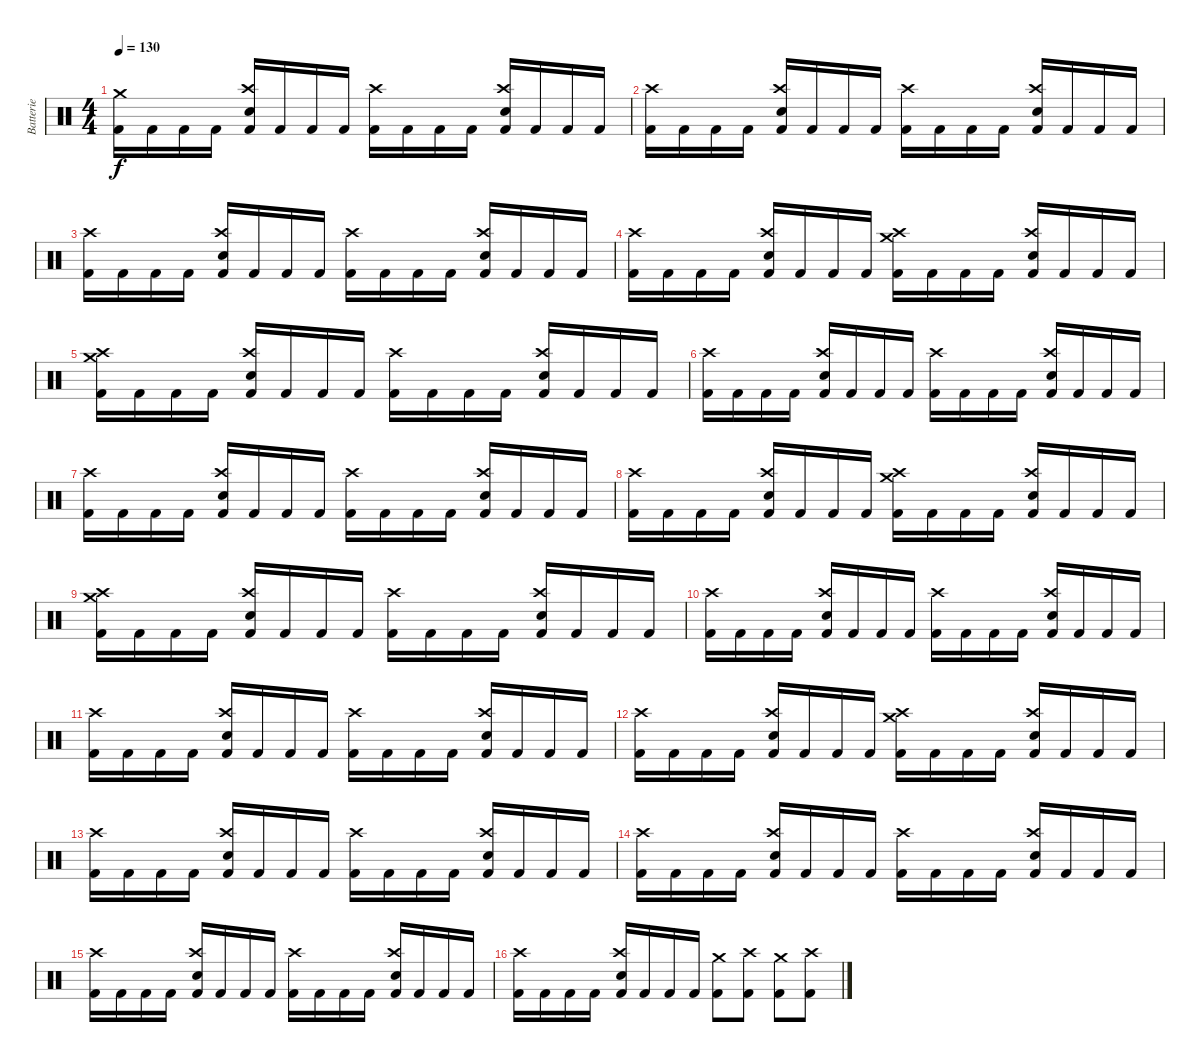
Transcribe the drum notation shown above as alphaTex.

\track ("Batterie" "Batterie") {instrument percussion}
\staff {score}
\articulation defaults
\ts (4 4)
\tempo 130
\clef neutral
\ks c
("Crash medium (hit)" "Kick (hit) 2").16{dy f} "Kick (hit) 2".16 "Kick (hit) 2".16 "Kick (hit) 2".16 ("Crash high (hit)" "Electric Snare (hit)" "Kick (hit) 2").16 "Kick (hit) 2".16 "Kick (hit) 2".16 "Kick (hit) 2".16 ("Crash high (hit)" "Kick (hit) 2").16 "Kick (hit) 2".16 "Kick (hit) 2".16 "Kick (hit) 2".16 ("Crash high (hit)" "Electric Snare (hit)" "Kick (hit) 2").16 "Kick (hit) 2".16 "Kick (hit) 2".16 "Kick (hit) 2".16 |
("Crash high (hit)" "Kick (hit) 2").16 "Kick (hit) 2".16 "Kick (hit) 2".16 "Kick (hit) 2".16 ("Crash high (hit)" "Electric Snare (hit)" "Kick (hit) 2").16 "Kick (hit) 2".16 "Kick (hit) 2".16 "Kick (hit) 2".16 ("Crash high (hit)" "Kick (hit) 2").16 "Kick (hit) 2".16 "Kick (hit) 2".16 "Kick (hit) 2".16 ("Crash high (hit)" "Electric Snare (hit)" "Kick (hit) 2").16 "Kick (hit) 2".16 "Kick (hit) 2".16 "Kick (hit) 2".16 |
("Crash high (hit)" "Kick (hit) 2").16 "Kick (hit) 2".16 "Kick (hit) 2".16 "Kick (hit) 2".16 ("Crash high (hit)" "Electric Snare (hit)" "Kick (hit) 2").16 "Kick (hit) 2".16 "Kick (hit) 2".16 "Kick (hit) 2".16 ("Crash high (hit)" "Kick (hit) 2").16 "Kick (hit) 2".16 "Kick (hit) 2".16 "Kick (hit) 2".16 ("Crash high (hit)" "Electric Snare (hit)" "Kick (hit) 2").16 "Kick (hit) 2".16 "Kick (hit) 2".16 "Kick (hit) 2".16 |
("Crash high (hit)" "Kick (hit) 2").16 "Kick (hit) 2".16 "Kick (hit) 2".16 "Kick (hit) 2".16 ("Crash high (hit)" "Electric Snare (hit)" "Kick (hit) 2").16 "Kick (hit) 2".16 "Kick (hit) 2".16 "Kick (hit) 2".16 ("Crash medium (hit)" "Crash high (hit)" "Kick (hit) 2").16 "Kick (hit) 2".16 "Kick (hit) 2".16 "Kick (hit) 2".16 ("Crash high (hit)" "Electric Snare (hit)" "Kick (hit) 2").16 "Kick (hit) 2".16 "Kick (hit) 2".16 "Kick (hit) 2".16 |
("Crash medium (hit)" "Crash high (hit)" "Kick (hit) 2").16 "Kick (hit) 2".16 "Kick (hit) 2".16 "Kick (hit) 2".16 ("Crash high (hit)" "Electric Snare (hit)" "Kick (hit) 2").16 "Kick (hit) 2".16 "Kick (hit) 2".16 "Kick (hit) 2".16 ("Crash high (hit)" "Kick (hit) 2").16 "Kick (hit) 2".16 "Kick (hit) 2".16 "Kick (hit) 2".16 ("Crash high (hit)" "Electric Snare (hit)" "Kick (hit) 2").16 "Kick (hit) 2".16 "Kick (hit) 2".16 "Kick (hit) 2".16 |
("Crash high (hit)" "Kick (hit) 2").16 "Kick (hit) 2".16 "Kick (hit) 2".16 "Kick (hit) 2".16 ("Crash high (hit)" "Electric Snare (hit)" "Kick (hit) 2").16 "Kick (hit) 2".16 "Kick (hit) 2".16 "Kick (hit) 2".16 ("Crash high (hit)" "Kick (hit) 2").16 "Kick (hit) 2".16 "Kick (hit) 2".16 "Kick (hit) 2".16 ("Crash high (hit)" "Electric Snare (hit)" "Kick (hit) 2").16 "Kick (hit) 2".16 "Kick (hit) 2".16 "Kick (hit) 2".16 |
("Crash high (hit)" "Kick (hit) 2").16 "Kick (hit) 2".16 "Kick (hit) 2".16 "Kick (hit) 2".16 ("Crash high (hit)" "Electric Snare (hit)" "Kick (hit) 2").16 "Kick (hit) 2".16 "Kick (hit) 2".16 "Kick (hit) 2".16 ("Crash high (hit)" "Kick (hit) 2").16 "Kick (hit) 2".16 "Kick (hit) 2".16 "Kick (hit) 2".16 ("Crash high (hit)" "Electric Snare (hit)" "Kick (hit) 2").16 "Kick (hit) 2".16 "Kick (hit) 2".16 "Kick (hit) 2".16 |
("Crash high (hit)" "Kick (hit) 2").16 "Kick (hit) 2".16 "Kick (hit) 2".16 "Kick (hit) 2".16 ("Crash high (hit)" "Electric Snare (hit)" "Kick (hit) 2").16 "Kick (hit) 2".16 "Kick (hit) 2".16 "Kick (hit) 2".16 ("Crash medium (hit)" "Crash high (hit)" "Kick (hit) 2").16 "Kick (hit) 2".16 "Kick (hit) 2".16 "Kick (hit) 2".16 ("Crash high (hit)" "Electric Snare (hit)" "Kick (hit) 2").16 "Kick (hit) 2".16 "Kick (hit) 2".16 "Kick (hit) 2".16 |
("Crash medium (hit)" "Crash high (hit)" "Kick (hit) 2").16 "Kick (hit) 2".16 "Kick (hit) 2".16 "Kick (hit) 2".16 ("Crash high (hit)" "Electric Snare (hit)" "Kick (hit) 2").16 "Kick (hit) 2".16 "Kick (hit) 2".16 "Kick (hit) 2".16 ("Crash high (hit)" "Kick (hit) 2").16 "Kick (hit) 2".16 "Kick (hit) 2".16 "Kick (hit) 2".16 ("Crash high (hit)" "Electric Snare (hit)" "Kick (hit) 2").16 "Kick (hit) 2".16 "Kick (hit) 2".16 "Kick (hit) 2".16 |
("Crash high (hit)" "Kick (hit) 2").16 "Kick (hit) 2".16 "Kick (hit) 2".16 "Kick (hit) 2".16 ("Crash high (hit)" "Electric Snare (hit)" "Kick (hit) 2").16 "Kick (hit) 2".16 "Kick (hit) 2".16 "Kick (hit) 2".16 ("Crash high (hit)" "Kick (hit) 2").16 "Kick (hit) 2".16 "Kick (hit) 2".16 "Kick (hit) 2".16 ("Crash high (hit)" "Electric Snare (hit)" "Kick (hit) 2").16 "Kick (hit) 2".16 "Kick (hit) 2".16 "Kick (hit) 2".16 |
("Crash high (hit)" "Kick (hit) 2").16 "Kick (hit) 2".16 "Kick (hit) 2".16 "Kick (hit) 2".16 ("Crash high (hit)" "Electric Snare (hit)" "Kick (hit) 2").16 "Kick (hit) 2".16 "Kick (hit) 2".16 "Kick (hit) 2".16 ("Crash high (hit)" "Kick (hit) 2").16 "Kick (hit) 2".16 "Kick (hit) 2".16 "Kick (hit) 2".16 ("Crash high (hit)" "Electric Snare (hit)" "Kick (hit) 2").16 "Kick (hit) 2".16 "Kick (hit) 2".16 "Kick (hit) 2".16 |
("Crash high (hit)" "Kick (hit) 2").16 "Kick (hit) 2".16 "Kick (hit) 2".16 "Kick (hit) 2".16 ("Crash high (hit)" "Electric Snare (hit)" "Kick (hit) 2").16 "Kick (hit) 2".16 "Kick (hit) 2".16 "Kick (hit) 2".16 ("Crash medium (hit)" "Crash high (hit)" "Kick (hit) 2").16 "Kick (hit) 2".16 "Kick (hit) 2".16 "Kick (hit) 2".16 ("Crash high (hit)" "Electric Snare (hit)" "Kick (hit) 2").16 "Kick (hit) 2".16 "Kick (hit) 2".16 "Kick (hit) 2".16 |
("Crash high (hit)" "Kick (hit) 2").16 "Kick (hit) 2".16 "Kick (hit) 2".16 "Kick (hit) 2".16 ("Crash high (hit)" "Electric Snare (hit)" "Kick (hit) 2").16 "Kick (hit) 2".16 "Kick (hit) 2".16 "Kick (hit) 2".16 ("Crash high (hit)" "Kick (hit) 2").16 "Kick (hit) 2".16 "Kick (hit) 2".16 "Kick (hit) 2".16 ("Crash high (hit)" "Electric Snare (hit)" "Kick (hit) 2").16 "Kick (hit) 2".16 "Kick (hit) 2".16 "Kick (hit) 2".16 |
("Crash high (hit)" "Kick (hit) 2").16 "Kick (hit) 2".16 "Kick (hit) 2".16 "Kick (hit) 2".16 ("Crash high (hit)" "Electric Snare (hit)" "Kick (hit) 2").16 "Kick (hit) 2".16 "Kick (hit) 2".16 "Kick (hit) 2".16 ("Crash high (hit)" "Kick (hit) 2").16 "Kick (hit) 2".16 "Kick (hit) 2".16 "Kick (hit) 2".16 ("Crash high (hit)" "Electric Snare (hit)" "Kick (hit) 2").16 "Kick (hit) 2".16 "Kick (hit) 2".16 "Kick (hit) 2".16 |
("Crash high (hit)" "Kick (hit) 2").16 "Kick (hit) 2".16 "Kick (hit) 2".16 "Kick (hit) 2".16 ("Crash high (hit)" "Electric Snare (hit)" "Kick (hit) 2").16 "Kick (hit) 2".16 "Kick (hit) 2".16 "Kick (hit) 2".16 ("Crash high (hit)" "Kick (hit) 2").16 "Kick (hit) 2".16 "Kick (hit) 2".16 "Kick (hit) 2".16 ("Crash high (hit)" "Electric Snare (hit)" "Kick (hit) 2").16 "Kick (hit) 2".16 "Kick (hit) 2".16 "Kick (hit) 2".16 |
("Crash high (hit)" "Kick (hit) 2").16 "Kick (hit) 2".16 "Kick (hit) 2".16 "Kick (hit) 2".16 ("Crash high (hit)" "Electric Snare (hit)" "Kick (hit) 2").16 "Kick (hit) 2".16 "Kick (hit) 2".16 "Kick (hit) 2".16 ("Crash medium (hit)" "Kick (hit) 2").8 ("Crash high (hit)" "Kick (hit) 2").8 ("Crash medium (hit)" "Kick (hit) 2").8 ("Crash high (hit)" "Kick (hit) 2").8
